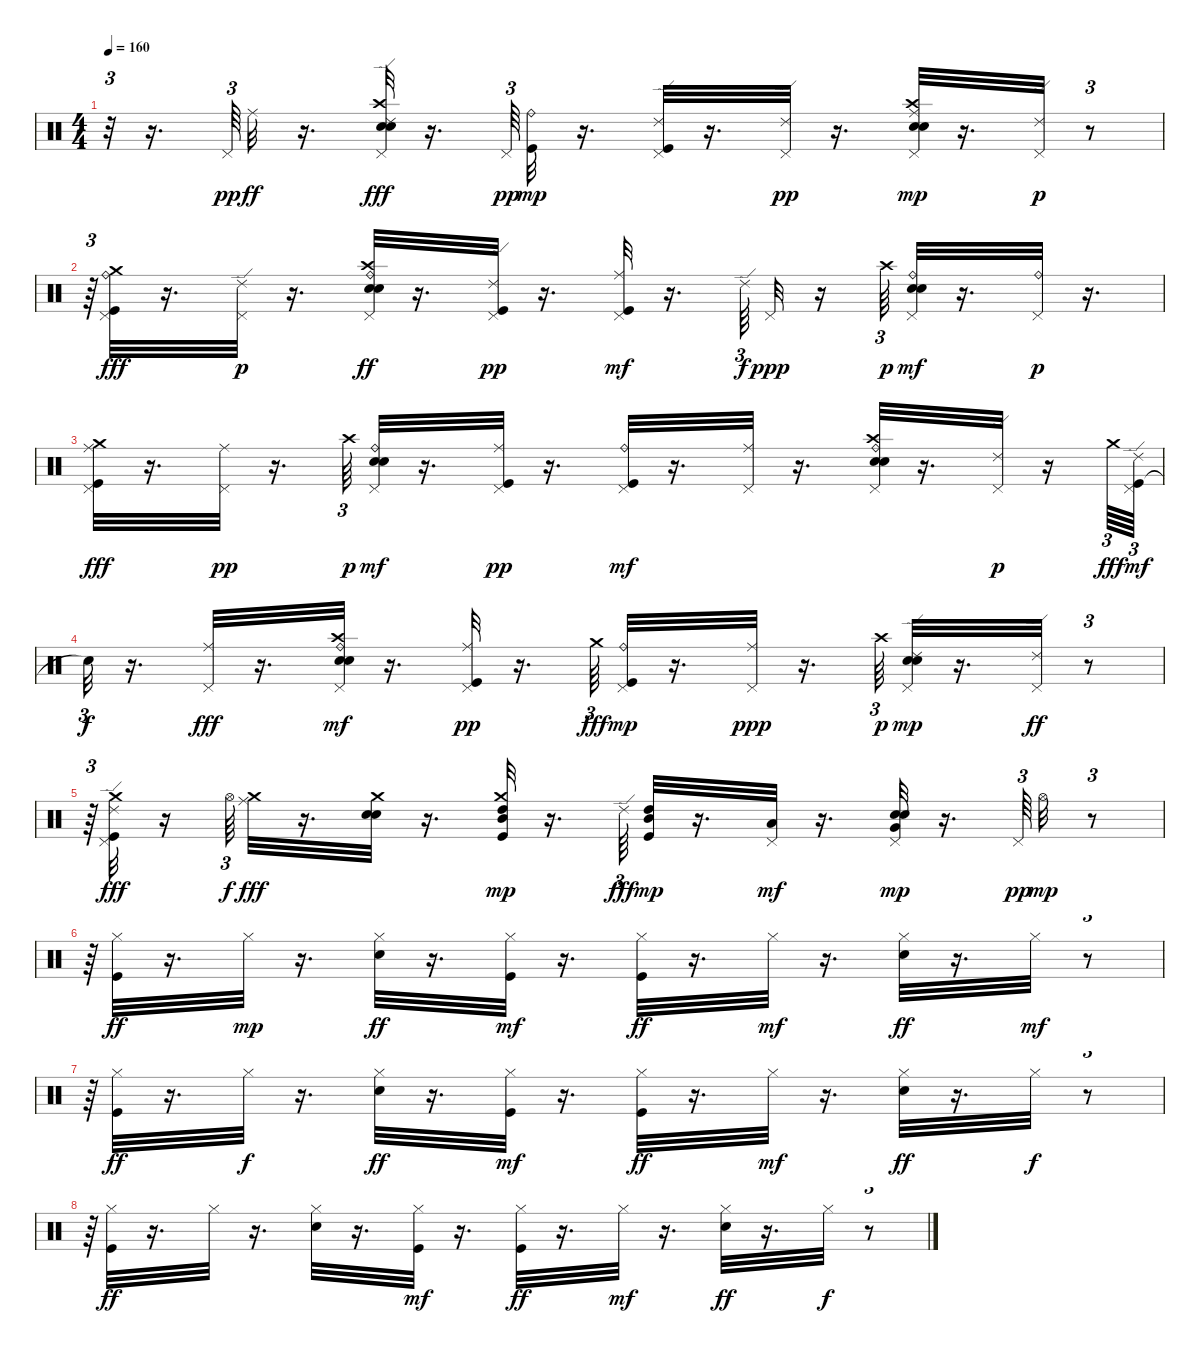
\track "" {instrument percussion}
\staff {score}
\articulation defaults
\ts (4 4)
\tempo 160
\clef neutral
\ks c
r.32{tu (3 2) dy mf} r.16{d} "Pedal Hi-Hat (hit)".64{tu (3 2) dy pp} "Ride (middle)".32{dy ff} r.16{d} ("Pedal Hi-Hat (hit)" "Electric Snare (hit)" "Crash high (hit)" "Snare (hit) 2" "Ride (edge) 2").32{dy fff} r.16{d} "Pedal Hi-Hat (hit)".64{tu (3 2) dy pp} ("Kick (hit)" "Ride (bell)").32{dy mp} r.16{d} ("Kick (hit)" "Ride (edge) 2" "Pedal Hi-Hat (hit)").32 r.16{d} ("Ride (edge) 2" "Pedal Hi-Hat (hit)").32{dy pp} r.16{d} ("Electric Snare (hit)" "Snare (hit) 2" "Ride (middle)" "Pedal Hi-Hat (hit)" "Crash high (hit)").32{dy mp} r.16{d} ("Ride (edge) 2" "Pedal Hi-Hat (hit)").32{dy p} r.8{tu (3 2)} |
r.64{tu (3 2)} ("Kick (hit)" "Ride (bell)" "Pedal Hi-Hat (hit)" "Crash medium (hit)").32{dy fff} r.16{d} ("Ride (edge) 2" "Pedal Hi-Hat (hit)").32{dy p} r.16{d} ("Electric Snare (hit)" "Crash high (hit)" "Snare (hit) 2" "Ride (bell)" "Pedal Hi-Hat (hit)").32{dy ff} r.16{d} ("Kick (hit)" "Ride (edge) 2" "Pedal Hi-Hat (hit)").32{dy pp} r.16{d} ("Kick (hit)" "Ride (middle)" "Pedal Hi-Hat (hit)").32{dy mf} r.16{d} "Ride (edge) 2".64{tu (3 2) dy f} "Pedal Hi-Hat (hit)".32{dy ppp} r.16 "Crash high (hit)".64{tu (3 2) dy p} ("Electric Snare (hit)" "Snare (hit) 2" "Ride (bell)" "Pedal Hi-Hat (hit)").32{dy mf} r.16{d} ("Ride (bell)" "Pedal Hi-Hat (hit)").32{dy p} r.16{d} |
("Kick (hit)" "Ride (middle)" "Pedal Hi-Hat (hit)" "Crash medium (hit)").32{dy fff} r.16{d} ("Ride (middle)" "Pedal Hi-Hat (hit)").32{dy pp} r.16{d} "Crash high (hit)".64{tu (3 2) dy p} ("Electric Snare (hit)" "Snare (hit) 2" "Ride (bell)" "Pedal Hi-Hat (hit)").32{dy mf} r.16{d} ("Kick (hit)" "Ride (middle)" "Pedal Hi-Hat (hit)").32{dy pp} r.16{d} ("Kick (hit)" "Ride (bell)" "Pedal Hi-Hat (hit)").32{dy mf} r.16{d} ("Pedal Hi-Hat (hit)" "Ride (middle)").32 r.16{d} ("Electric Snare (hit)" "Crash high (hit)" "Snare (hit) 2" "Ride (bell)" "Pedal Hi-Hat (hit)").32 r.16{d} ("Ride (edge) 2" "Pedal Hi-Hat (hit)").32{dy p} r.16 "Crash medium (hit)".64{tu (3 2) dy fff} ("Kick (hit)" "Ride (edge) 2" "Pedal Hi-Hat (hit)").64{tu (3 2) dy mf} |
"Snare (hit)"{t}.32{tu (3 2) dy f} r.16{d} ("Pedal Hi-Hat (hit)" "Ride (middle)").32{dy fff} r.16{d} ("Electric Snare (hit)" "Crash high (hit)" "Snare (hit) 2" "Ride (bell)" "Pedal Hi-Hat (hit)").32{dy mf} r.16{d} ("Kick (hit)" "Ride (middle)" "Pedal Hi-Hat (hit)").32{dy pp} r.16{d} "Crash medium (hit)".64{tu (3 2) dy fff} ("Kick (hit)" "Ride (bell)" "Pedal Hi-Hat (hit)").32{dy mp} r.16{d} ("Ride (middle)" "Pedal Hi-Hat (hit)").32{dy ppp} r.16{d} "Crash high (hit)".64{tu (3 2) dy p} ("Electric Snare (hit)" "Snare (hit) 2" "Ride (edge) 2" "Pedal Hi-Hat (hit)").32{dy mp} r.16{d} ("Pedal Hi-Hat (hit)" "Ride (edge) 2").32{dy ff} r.8{tu (3 2)} |
r.64{tu (3 2)} ("Kick (hit)" "Crash medium (hit)" "Ride (edge) 2" "Pedal Hi-Hat (hit)").32{dy fff} r.16 "Hi-Hat (open)".64{tu (3 2) dy f} ("Ride (middle)" "Crash medium (hit)").32{dy fff} r.16{d} ("Electric Snare (hit)" "Snare (hit) 2" "Crash medium (hit)").32 r.16{d} ("Crash medium (hit)" "Kick (hit)" "High Tom (hit)" "Mid Tom (hit)").32{dy mp} r.16{d} "Ride (edge) 2".64{tu (3 2) dy fff} ("Kick (hit)" "High Tom (hit)" "Mid Tom (hit)").32{dy mp} r.16{d} ("Pedal Hi-Hat (hit)" "Low Tom (hit)").32{dy mf} r.16{d} ("Pedal Hi-Hat (hit)" "Electric Snare (hit)" "Very Low Tom (hit)" "Snare (hit) 2").32{dy mp} r.16{d} "Pedal Hi-Hat (hit)".64{tu (3 2) dy pp} "Hi-Hat (open)".32{dy mp} r.8{tu (3 2)} |
r.64{tu (3 2)} ("Kick (hit)" "Hi-Hat (closed)").32{dy ff} r.16{d} "Hi-Hat (closed)".32{dy mp} r.16{d} ("Hi-Hat (closed)" "Electric Snare (hit)").32{dy ff} r.16{d} ("Kick (hit)" "Hi-Hat (closed)").32{dy mf} r.16{d} ("Kick (hit)" "Hi-Hat (closed)").32{dy ff} r.16{d} "Hi-Hat (closed)".32{dy mf} r.16{d} ("Hi-Hat (closed)" "Electric Snare (hit)").32{dy ff} r.16{d} "Hi-Hat (closed)".32{dy mf} r.8{tu (3 2)} |
r.64{tu (3 2)} ("Kick (hit)" "Hi-Hat (closed)").32{dy ff} r.16{d} "Hi-Hat (closed)".32{dy f} r.16{d} ("Hi-Hat (closed)" "Electric Snare (hit)").32{dy ff} r.16{d} ("Kick (hit)" "Hi-Hat (closed)").32{dy mf} r.16{d} ("Kick (hit)" "Hi-Hat (closed)").32{dy ff} r.16{d} "Hi-Hat (closed)".32{dy mf} r.16{d} ("Hi-Hat (closed)" "Electric Snare (hit)").32{dy ff} r.16{d} "Hi-Hat (closed)".32{dy f} r.8{tu (3 2)} |
r.64{tu (3 2)} ("Kick (hit)" "Hi-Hat (closed)").32{dy ff} r.16{d} "Hi-Hat (closed)".32 r.16{d} ("Hi-Hat (closed)" "Electric Snare (hit)").32 r.16{d} ("Kick (hit)" "Hi-Hat (closed)").32{dy mf} r.16{d} ("Kick (hit)" "Hi-Hat (closed)").32{dy ff} r.16{d} "Hi-Hat (closed)".32{dy mf} r.16{d} ("Hi-Hat (closed)" "Electric Snare (hit)").32{dy ff} r.16{d} "Hi-Hat (closed)".32{dy f} r.8{tu (3 2)}
